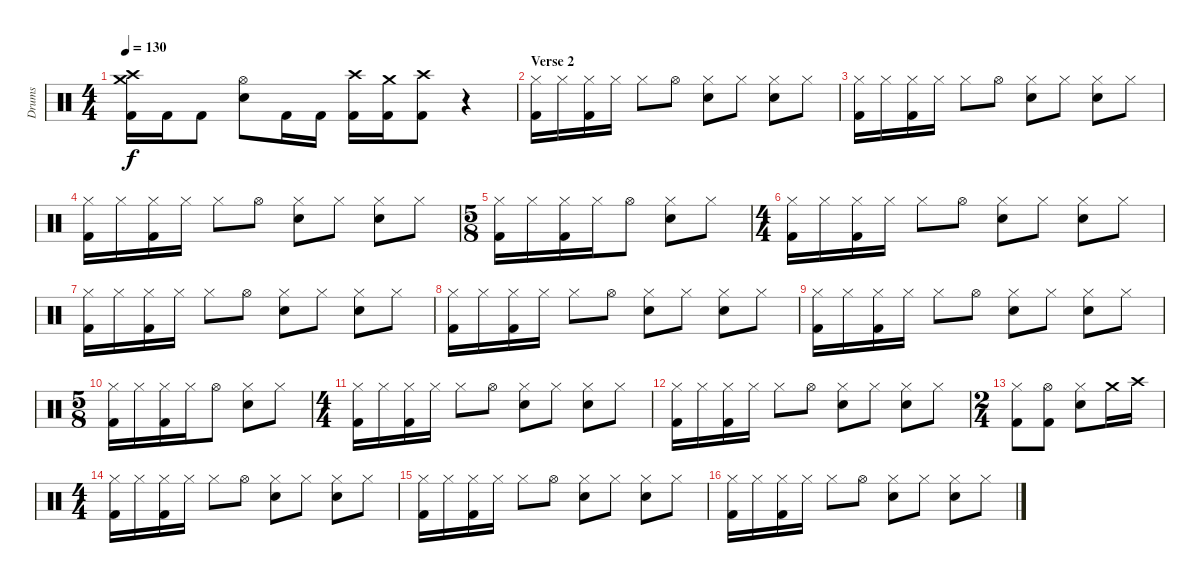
\track ("Drums" "Drums") {instrument percussion}
\staff {score}
\articulation defaults
\ts (4 4)
\tempo 130
\clef neutral
\ks c
("Crash high (hit)" "Crash medium (hit)" "Kick (hit) 2").16{dy f} "Kick (hit) 2".16 "Kick (hit) 2".8 ("Hi-Hat (open)" "Electric Snare (hit)").8 "Kick (hit) 2".16 "Kick (hit) 2".16 ("Crash high (hit)" "Kick (hit) 2").16 ("Crash medium (hit)" "Kick (hit) 2").16 ("Crash high (hit)" "Kick (hit) 2").8 r.4 |
\section ("" "Verse 2")
("Hi-Hat (closed)" "Kick (hit) 2").16 "Hi-Hat (closed)".16 ("Hi-Hat (closed)" "Kick (hit) 2").16 "Hi-Hat (closed)".16 "Hi-Hat (closed)".8 "Hi-Hat (open)".8 ("Hi-Hat (closed)" "Electric Snare (hit)").8 "Hi-Hat (closed)".8 ("Hi-Hat (closed)" "Electric Snare (hit)").8 "Hi-Hat (closed)".8 |
("Hi-Hat (closed)" "Kick (hit) 2").16 "Hi-Hat (closed)".16 ("Hi-Hat (closed)" "Kick (hit) 2").16 "Hi-Hat (closed)".16 "Hi-Hat (closed)".8 "Hi-Hat (open)".8 ("Hi-Hat (closed)" "Electric Snare (hit)").8 "Hi-Hat (closed)".8 ("Hi-Hat (closed)" "Electric Snare (hit)").8 "Hi-Hat (closed)".8 |
("Hi-Hat (closed)" "Kick (hit) 2").16 "Hi-Hat (closed)".16 ("Hi-Hat (closed)" "Kick (hit) 2").16 "Hi-Hat (closed)".16 "Hi-Hat (closed)".8 "Hi-Hat (open)".8 ("Hi-Hat (closed)" "Electric Snare (hit)").8 "Hi-Hat (closed)".8 ("Hi-Hat (closed)" "Electric Snare (hit)").8 "Hi-Hat (closed)".8 |
\ts (5 8)
("Hi-Hat (closed)" "Kick (hit) 2").16 "Hi-Hat (closed)".16 ("Hi-Hat (closed)" "Kick (hit) 2").16 "Hi-Hat (closed)".16 "Hi-Hat (open)".8 ("Hi-Hat (closed)" "Electric Snare (hit)").8 "Hi-Hat (closed)".8 |
\ts (4 4)
("Hi-Hat (closed)" "Kick (hit) 2").16 "Hi-Hat (closed)".16 ("Hi-Hat (closed)" "Kick (hit) 2").16 "Hi-Hat (closed)".16 "Hi-Hat (closed)".8 "Hi-Hat (open)".8 ("Hi-Hat (closed)" "Electric Snare (hit)").8 "Hi-Hat (closed)".8 ("Hi-Hat (closed)" "Electric Snare (hit)").8 "Hi-Hat (closed)".8 |
("Hi-Hat (closed)" "Kick (hit) 2").16 "Hi-Hat (closed)".16 ("Hi-Hat (closed)" "Kick (hit) 2").16 "Hi-Hat (closed)".16 "Hi-Hat (closed)".8 "Hi-Hat (open)".8 ("Hi-Hat (closed)" "Electric Snare (hit)").8 "Hi-Hat (closed)".8 ("Hi-Hat (closed)" "Electric Snare (hit)").8 "Hi-Hat (closed)".8 |
("Hi-Hat (closed)" "Kick (hit) 2").16 "Hi-Hat (closed)".16 ("Hi-Hat (closed)" "Kick (hit) 2").16 "Hi-Hat (closed)".16 "Hi-Hat (closed)".8 "Hi-Hat (open)".8 ("Hi-Hat (closed)" "Electric Snare (hit)").8 "Hi-Hat (closed)".8 ("Hi-Hat (closed)" "Electric Snare (hit)").8 "Hi-Hat (closed)".8 |
("Hi-Hat (closed)" "Kick (hit) 2").16 "Hi-Hat (closed)".16 ("Hi-Hat (closed)" "Kick (hit) 2").16 "Hi-Hat (closed)".16 "Hi-Hat (closed)".8 "Hi-Hat (open)".8 ("Hi-Hat (closed)" "Electric Snare (hit)").8 "Hi-Hat (closed)".8 ("Hi-Hat (closed)" "Electric Snare (hit)").8 "Hi-Hat (closed)".8 |
\ts (5 8)
("Hi-Hat (closed)" "Kick (hit) 2").16 "Hi-Hat (closed)".16 ("Hi-Hat (closed)" "Kick (hit) 2").16 "Hi-Hat (closed)".16 "Hi-Hat (open)".8 ("Hi-Hat (closed)" "Electric Snare (hit)").8 "Hi-Hat (closed)".8 |
\ts (4 4)
("Hi-Hat (closed)" "Kick (hit) 2").16 "Hi-Hat (closed)".16 ("Hi-Hat (closed)" "Kick (hit) 2").16 "Hi-Hat (closed)".16 "Hi-Hat (closed)".8 "Hi-Hat (open)".8 ("Hi-Hat (closed)" "Electric Snare (hit)").8 "Hi-Hat (closed)".8 ("Hi-Hat (closed)" "Electric Snare (hit)").8 "Hi-Hat (closed)".8 |
("Hi-Hat (closed)" "Kick (hit) 2").16 "Hi-Hat (closed)".16 ("Hi-Hat (closed)" "Kick (hit) 2").16 "Hi-Hat (closed)".16 "Hi-Hat (closed)".8 "Hi-Hat (open)".8 ("Hi-Hat (closed)" "Electric Snare (hit)").8 "Hi-Hat (closed)".8 ("Hi-Hat (closed)" "Electric Snare (hit)").8 "Hi-Hat (closed)".8 |
\ts (2 4)
("Hi-Hat (closed)" "Kick (hit) 2").8 ("Hi-Hat (open)" "Kick (hit) 2").8 ("Hi-Hat (closed)" "Electric Snare (hit)").8 "Crash medium (hit)".16 "Crash high (hit)".16 |
\ts (4 4)
("Hi-Hat (closed)" "Kick (hit) 2").16 "Hi-Hat (closed)".16 ("Hi-Hat (closed)" "Kick (hit) 2").16 "Hi-Hat (closed)".16 "Hi-Hat (closed)".8 "Hi-Hat (open)".8 ("Hi-Hat (closed)" "Electric Snare (hit)").8 "Hi-Hat (closed)".8 ("Hi-Hat (closed)" "Electric Snare (hit)").8 "Hi-Hat (closed)".8 |
("Hi-Hat (closed)" "Kick (hit) 2").16 "Hi-Hat (closed)".16 ("Hi-Hat (closed)" "Kick (hit) 2").16 "Hi-Hat (closed)".16 "Hi-Hat (closed)".8 "Hi-Hat (open)".8 ("Hi-Hat (closed)" "Electric Snare (hit)").8 "Hi-Hat (closed)".8 ("Hi-Hat (closed)" "Electric Snare (hit)").8 "Hi-Hat (closed)".8 |
("Hi-Hat (closed)" "Kick (hit) 2").16 "Hi-Hat (closed)".16 ("Hi-Hat (closed)" "Kick (hit) 2").16 "Hi-Hat (closed)".16 "Hi-Hat (closed)".8 "Hi-Hat (open)".8 ("Hi-Hat (closed)" "Electric Snare (hit)").8 "Hi-Hat (closed)".8 ("Hi-Hat (closed)" "Electric Snare (hit)").8 "Hi-Hat (closed)".8
